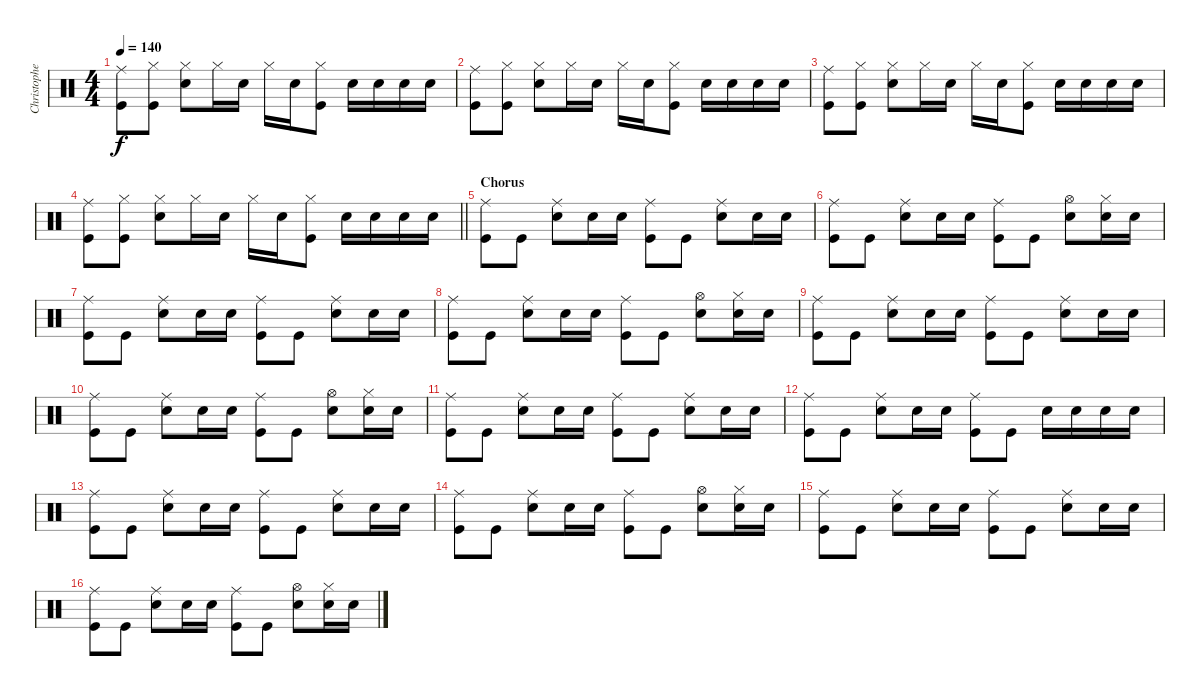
\track ("Christopher - Drums" "Christophe") {instrument percussion}
\staff {score}
\articulation defaults
\ts (4 4)
\tempo 140
\clef neutral
\ks c
("Ride (middle)" "Kick (hit)").8{dy f} ("Hi-Hat (closed)" "Kick (hit)").8 ("Hi-Hat (closed)" "Snare (hit) 2").8 "Hi-Hat (closed)".16 "Snare (hit) 2".16 "Hi-Hat (closed)".16 "Snare (hit) 2".16 ("Hi-Hat (closed)" "Kick (hit)").8 "Snare (hit) 2".16 "Snare (hit) 2".16 "Snare (hit) 2".16 "Snare (hit) 2".16 |
("Ride (middle)" "Kick (hit)").8 ("Hi-Hat (closed)" "Kick (hit)").8 ("Hi-Hat (closed)" "Snare (hit) 2").8 "Hi-Hat (closed)".16 "Snare (hit) 2".16 "Hi-Hat (closed)".16 "Snare (hit) 2".16 ("Hi-Hat (closed)" "Kick (hit)").8 "Snare (hit) 2".16 "Snare (hit) 2".16 "Snare (hit) 2".16 "Snare (hit) 2".16 |
("Ride (middle)" "Kick (hit)").8 ("Hi-Hat (closed)" "Kick (hit)").8 ("Hi-Hat (closed)" "Snare (hit) 2").8 "Hi-Hat (closed)".16 "Snare (hit) 2".16 "Hi-Hat (closed)".16 "Snare (hit) 2".16 ("Hi-Hat (closed)" "Kick (hit)").8 "Snare (hit) 2".16 "Snare (hit) 2".16 "Snare (hit) 2".16 "Snare (hit) 2".16 |
\barLineRight lightlight
("Ride (middle)" "Kick (hit)").8 ("Hi-Hat (closed)" "Kick (hit)").8 ("Hi-Hat (closed)" "Snare (hit) 2").8 "Hi-Hat (closed)".16 "Snare (hit) 2".16 "Hi-Hat (closed)".16 "Snare (hit) 2".16 ("Hi-Hat (closed)" "Kick (hit)").8 "Snare (hit) 2".16 "Snare (hit) 2".16 "Snare (hit) 2".16 "Snare (hit) 2".16 |
\section ("" "Chorus")
("Ride (middle)" "Kick (hit)").8 "Kick (hit)".8 ("Ride (middle)" "Snare (hit) 2").8 "Snare (hit) 2".16 "Snare (hit) 2".16 ("Ride (middle)" "Kick (hit)").8 "Kick (hit)".8 ("Ride (middle)" "Snare (hit) 2").8 "Snare (hit) 2".16 "Snare (hit) 2".16 |
("Ride (middle)" "Kick (hit)").8 "Kick (hit)".8 ("Ride (middle)" "Snare (hit) 2").8 "Snare (hit) 2".16 "Snare (hit) 2".16 ("Ride (middle)" "Kick (hit)").8 "Kick (hit)".8 ("Hi-Hat (open)" "Snare (hit) 2").8 ("Hi-Hat (closed)" "Snare (hit) 2").16 "Snare (hit) 2".16 |
("Ride (middle)" "Kick (hit)").8 "Kick (hit)".8 ("Ride (middle)" "Snare (hit) 2").8 "Snare (hit) 2".16 "Snare (hit) 2".16 ("Ride (middle)" "Kick (hit)").8 "Kick (hit)".8 ("Ride (middle)" "Snare (hit) 2").8 "Snare (hit) 2".16 "Snare (hit) 2".16 |
("Ride (middle)" "Kick (hit)").8 "Kick (hit)".8 ("Ride (middle)" "Snare (hit) 2").8 "Snare (hit) 2".16 "Snare (hit) 2".16 ("Ride (middle)" "Kick (hit)").8 "Kick (hit)".8 ("Hi-Hat (open)" "Snare (hit) 2").8 ("Hi-Hat (closed)" "Snare (hit) 2").16 "Snare (hit) 2".16 |
("Ride (middle)" "Kick (hit)").8 "Kick (hit)".8 ("Ride (middle)" "Snare (hit) 2").8 "Snare (hit) 2".16 "Snare (hit) 2".16 ("Ride (middle)" "Kick (hit)").8 "Kick (hit)".8 ("Ride (middle)" "Snare (hit) 2").8 "Snare (hit) 2".16 "Snare (hit) 2".16 |
("Ride (middle)" "Kick (hit)").8 "Kick (hit)".8 ("Ride (middle)" "Snare (hit) 2").8 "Snare (hit) 2".16 "Snare (hit) 2".16 ("Ride (middle)" "Kick (hit)").8 "Kick (hit)".8 ("Hi-Hat (open)" "Snare (hit) 2").8 ("Hi-Hat (closed)" "Snare (hit) 2").16 "Snare (hit) 2".16 |
("Ride (middle)" "Kick (hit)").8 "Kick (hit)".8 ("Ride (middle)" "Snare (hit) 2").8 "Snare (hit) 2".16 "Snare (hit) 2".16 ("Ride (middle)" "Kick (hit)").8 "Kick (hit)".8 ("Ride (middle)" "Snare (hit) 2").8 "Snare (hit) 2".16 "Snare (hit) 2".16 |
("Ride (middle)" "Kick (hit)").8 "Kick (hit)".8 ("Ride (middle)" "Snare (hit) 2").8 "Snare (hit) 2".16 "Snare (hit) 2".16 ("Ride (middle)" "Kick (hit)").8 "Kick (hit)".8 "Snare (hit) 2".16 "Snare (hit) 2".16 "Snare (hit) 2".16 "Snare (hit) 2".16 |
("Ride (middle)" "Kick (hit)").8 "Kick (hit)".8 ("Ride (middle)" "Snare (hit) 2").8 "Snare (hit) 2".16 "Snare (hit) 2".16 ("Ride (middle)" "Kick (hit)").8 "Kick (hit)".8 ("Ride (middle)" "Snare (hit) 2").8 "Snare (hit) 2".16 "Snare (hit) 2".16 |
("Ride (middle)" "Kick (hit)").8 "Kick (hit)".8 ("Ride (middle)" "Snare (hit) 2").8 "Snare (hit) 2".16 "Snare (hit) 2".16 ("Ride (middle)" "Kick (hit)").8 "Kick (hit)".8 ("Hi-Hat (open)" "Snare (hit) 2").8 ("Hi-Hat (closed)" "Snare (hit) 2").16 "Snare (hit) 2".16 |
("Ride (middle)" "Kick (hit)").8 "Kick (hit)".8 ("Ride (middle)" "Snare (hit) 2").8 "Snare (hit) 2".16 "Snare (hit) 2".16 ("Ride (middle)" "Kick (hit)").8 "Kick (hit)".8 ("Ride (middle)" "Snare (hit) 2").8 "Snare (hit) 2".16 "Snare (hit) 2".16 |
("Ride (middle)" "Kick (hit)").8 "Kick (hit)".8 ("Ride (middle)" "Snare (hit) 2").8 "Snare (hit) 2".16 "Snare (hit) 2".16 ("Ride (middle)" "Kick (hit)").8 "Kick (hit)".8 ("Hi-Hat (open)" "Snare (hit) 2").8 ("Hi-Hat (closed)" "Snare (hit) 2").16 "Snare (hit) 2".16
